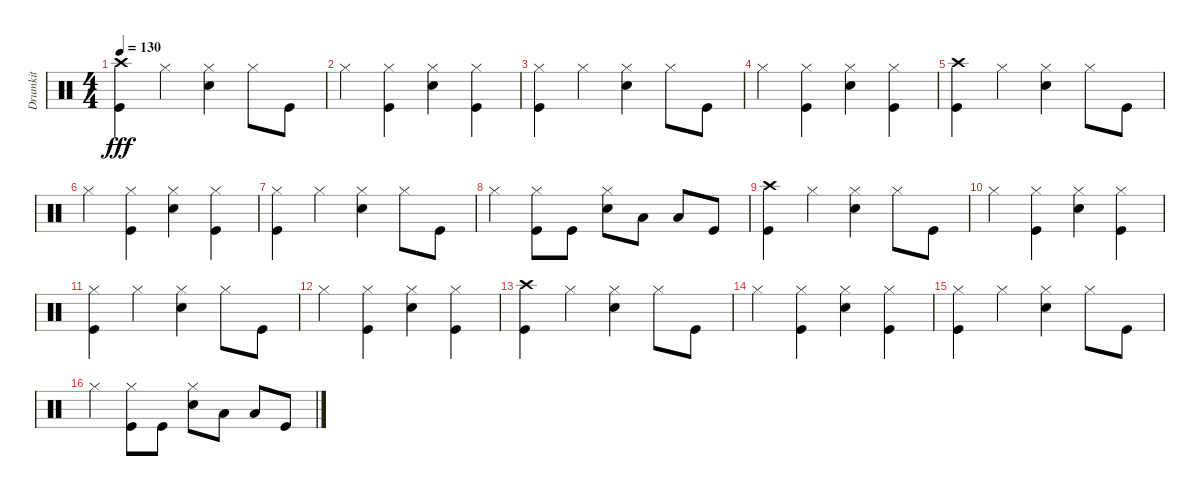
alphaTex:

\track ("Drumkit" "Drumkit") {instrument percussion}
\staff {score}
\articulation defaults
\ts (4 4)
\tempo 130
\clef neutral
\ks c
("Kick (hit)" "Crash high (hit)").4{dy fff} "Hi-Hat (closed)".4 ("Hi-Hat (closed)" "Snare (hit) 2").4 "Hi-Hat (closed)".8 "Kick (hit)".8 |
"Hi-Hat (closed)".4 ("Hi-Hat (closed)" "Kick (hit)").4 ("Hi-Hat (closed)" "Snare (hit) 2").4 ("Hi-Hat (closed)" "Kick (hit)").4 |
("Kick (hit)" "Hi-Hat (closed)").4 "Hi-Hat (closed)".4 ("Hi-Hat (closed)" "Snare (hit) 2").4 "Hi-Hat (closed)".8 "Kick (hit)".8 |
"Hi-Hat (closed)".4 ("Hi-Hat (closed)" "Kick (hit)").4 ("Hi-Hat (closed)" "Snare (hit) 2").4 ("Hi-Hat (closed)" "Kick (hit)").4 |
("Kick (hit)" "Crash high (hit)").4 "Hi-Hat (closed)".4 ("Hi-Hat (closed)" "Snare (hit) 2").4 "Hi-Hat (closed)".8 "Kick (hit)".8 |
"Hi-Hat (closed)".4 ("Hi-Hat (closed)" "Kick (hit)").4 ("Hi-Hat (closed)" "Snare (hit) 2").4 ("Hi-Hat (closed)" "Kick (hit)").4 |
("Kick (hit)" "Hi-Hat (closed)").4 "Hi-Hat (closed)".4 ("Hi-Hat (closed)" "Snare (hit) 2").4 "Hi-Hat (closed)".8 "Kick (hit)".8 |
"Hi-Hat (closed)".4 ("Hi-Hat (closed)" "Kick (hit)").8 "Kick (hit)".8 ("Hi-Hat (closed)" "Snare (hit) 2").8 "Low Tom (hit)".8 "Low Tom (hit)".8 "Kick (hit)".8 |
("Kick (hit)" "Crash high (hit)").4 "Hi-Hat (closed)".4 ("Hi-Hat (closed)" "Snare (hit) 2").4 "Hi-Hat (closed)".8 "Kick (hit)".8 |
"Hi-Hat (closed)".4 ("Hi-Hat (closed)" "Kick (hit)").4 ("Hi-Hat (closed)" "Snare (hit) 2").4 ("Hi-Hat (closed)" "Kick (hit)").4 |
("Kick (hit)" "Hi-Hat (closed)").4 "Hi-Hat (closed)".4 ("Hi-Hat (closed)" "Snare (hit) 2").4 "Hi-Hat (closed)".8 "Kick (hit)".8 |
"Hi-Hat (closed)".4 ("Hi-Hat (closed)" "Kick (hit)").4 ("Hi-Hat (closed)" "Snare (hit) 2").4 ("Hi-Hat (closed)" "Kick (hit)").4 |
("Kick (hit)" "Crash high (hit)").4 "Hi-Hat (closed)".4 ("Hi-Hat (closed)" "Snare (hit) 2").4 "Hi-Hat (closed)".8 "Kick (hit)".8 |
"Hi-Hat (closed)".4 ("Hi-Hat (closed)" "Kick (hit)").4 ("Hi-Hat (closed)" "Snare (hit) 2").4 ("Hi-Hat (closed)" "Kick (hit)").4 |
("Kick (hit)" "Hi-Hat (closed)").4 "Hi-Hat (closed)".4 ("Hi-Hat (closed)" "Snare (hit) 2").4 "Hi-Hat (closed)".8 "Kick (hit)".8 |
"Hi-Hat (closed)".4 ("Hi-Hat (closed)" "Kick (hit)").8 "Kick (hit)".8 ("Hi-Hat (closed)" "Snare (hit) 2").8 "Low Tom (hit)".8 "Low Tom (hit)".8 "Kick (hit)".8
